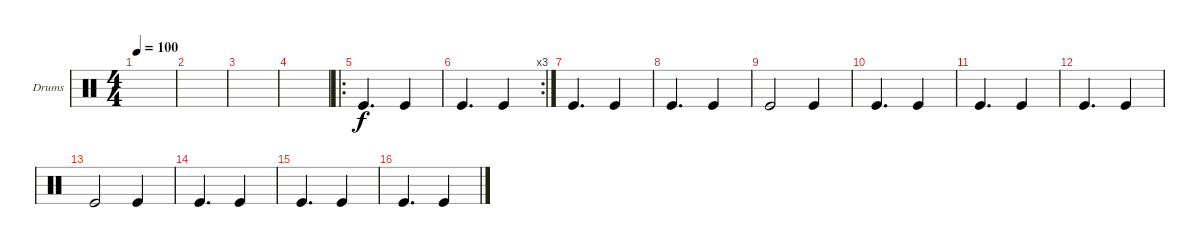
\defaultSystemsLayout 4
\bracketExtendMode groupsimilarinstruments
\firstSystemTrackNameOrientation horizontal
\otherSystemsTrackNameOrientation horizontal
\track ("Drumkit" "Drums") {instrument percussion}
\staff {score}
\articulation defaults
\ts (4 4)
\tempo 100
\clef neutral
\ks c
|
|
|
|
\ro "Kick (hit)".4{d} "Kick (hit)".4
|
\rc 3 "Kick (hit)".4{d} "Kick (hit)".4
|
"Kick (hit)".4{d} "Kick (hit)".4 |
"Kick (hit)".4{d} "Kick (hit)".4 |
"Kick (hit)".2 "Kick (hit)".4 |
"Kick (hit)".4{d} "Kick (hit)".4 |
"Kick (hit)".4{d} "Kick (hit)".4 |
"Kick (hit)".4{d} "Kick (hit)".4 |
"Kick (hit)".2 "Kick (hit)".4 |
"Kick (hit)".4{d} "Kick (hit)".4 |
"Kick (hit)".4{d} "Kick (hit)".4 |
"Kick (hit)".4{d} "Kick (hit)".4
